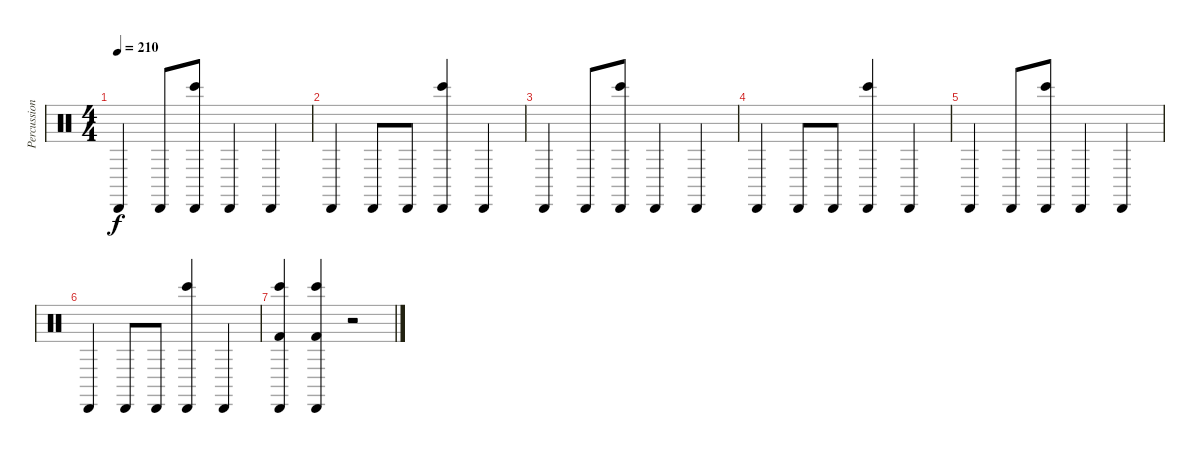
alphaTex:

\track ("Percussions" "Percussion") {instrument percussion}
\staff {score}
\articulation defaults
\ts (4 4)
\tempo 210
\clef neutral
\ks c "Cabasa (hit)".4{dy f} "Cabasa (hit)".8
("Bongo High (hit)" "Cabasa (hit)").8 "Cabasa (hit)".4 "Cabasa (hit)".4 |
"Cabasa (hit)".4 "Cabasa (hit)".8 "Cabasa (hit)".8 ("Bongo High (hit)" "Cabasa (hit)").4 "Cabasa (hit)".4 |
"Cabasa (hit)".4 "Cabasa (hit)".8 ("Bongo High (hit)" "Cabasa (hit)").8 "Cabasa (hit)".4 "Cabasa (hit)".4 |
"Cabasa (hit)".4 "Cabasa (hit)".8 "Cabasa (hit)".8 ("Bongo High (hit)" "Cabasa (hit)").4 "Cabasa (hit)".4 |
"Cabasa (hit)".4 "Cabasa (hit)".8 ("Bongo High (hit)" "Cabasa (hit)").8 "Cabasa (hit)".4 "Cabasa (hit)".4 |
"Cabasa (hit)".4 "Cabasa (hit)".8 "Cabasa (hit)".8 ("Bongo High (hit)" "Cabasa (hit)").4 "Cabasa (hit)".4 |
("Bongo High (hit)" "Kick (hit) 2" "Cabasa (hit)").4 ("Bongo High (hit)" "Kick (hit) 2" "Cabasa (hit)").4 r.2
